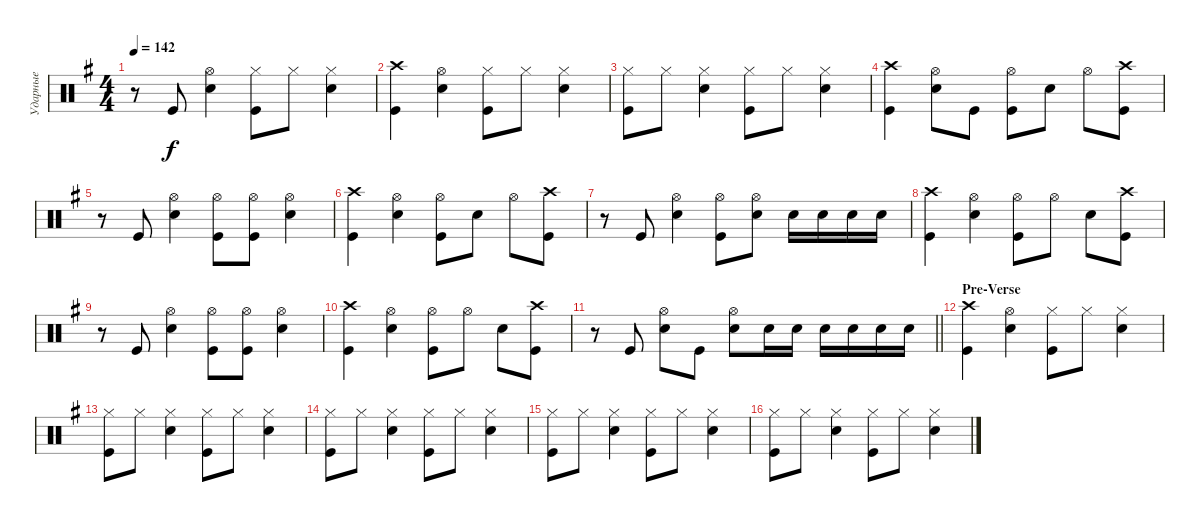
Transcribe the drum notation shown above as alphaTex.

\track ("Ударные" "Ударные") {instrument percussion}
\staff {score}
\articulation defaults
\ts (4 4)
\tempo 142
\clef neutral
\ks eminor
r.8{dy f} "Kick (hit)".8 ("Snare (hit) 2" "Hi-Hat (open)").4 ("Kick (hit)" "Hi-Hat (closed)").8 "Hi-Hat (closed)".8 ("Snare (hit) 2" "Hi-Hat (closed)").4 |
("Kick (hit)" "Crash high (hit)").4 ("Snare (hit) 2" "Hi-Hat (open)").4 ("Kick (hit)" "Hi-Hat (closed)").8 "Hi-Hat (closed)".8 ("Snare (hit) 2" "Hi-Hat (closed)").4 |
("Hi-Hat (closed)" "Kick (hit)").8 "Hi-Hat (closed)".8 ("Snare (hit) 2" "Hi-Hat (closed)").4 ("Kick (hit)" "Hi-Hat (closed)").8 "Hi-Hat (closed)".8 ("Hi-Hat (closed)" "Snare (hit) 2").4 |
("Kick (hit)" "Crash high (hit)").4 ("Snare (hit) 2" "Hi-Hat (open)").8 "Kick (hit)".8 ("Kick (hit)" "Hi-Hat (open)").8 "Snare (hit) 2".8 "Hi-Hat (open)".8 ("Kick (hit)" "Crash high (hit)").8 |
r.8 "Kick (hit)".8 ("Snare (hit) 2" "Hi-Hat (open)").4 ("Kick (hit)" "Hi-Hat (open)").8 ("Kick (hit)" "Hi-Hat (open)").8 ("Snare (hit) 2" "Hi-Hat (open)").4 |
("Kick (hit)" "Crash high (hit)").4 ("Snare (hit) 2" "Hi-Hat (open)").4 ("Kick (hit)" "Hi-Hat (open)").8 "Snare (hit) 2".8 "Hi-Hat (open)".8 ("Kick (hit)" "Crash high (hit)").8 |
r.8 "Kick (hit)".8 ("Snare (hit) 2" "Hi-Hat (open)").4 ("Kick (hit)" "Hi-Hat (open)").8 ("Snare (hit) 2" "Hi-Hat (open)").8 "Snare (hit) 2".16 "Snare (hit) 2".16 "Snare (hit) 2".16 "Snare (hit) 2".16 |
("Kick (hit)" "Crash high (hit)").4 ("Snare (hit) 2" "Hi-Hat (open)").4 ("Kick (hit)" "Hi-Hat (open)").8 "Hi-Hat (open)".8 "Snare (hit) 2".8 ("Kick (hit)" "Crash high (hit)").8 |
r.8 "Kick (hit)".8 ("Snare (hit) 2" "Hi-Hat (open)").4 ("Kick (hit)" "Hi-Hat (open)").8 ("Kick (hit)" "Hi-Hat (open)").8 ("Snare (hit) 2" "Hi-Hat (open)").4 |
("Kick (hit)" "Crash high (hit)").4 ("Snare (hit) 2" "Hi-Hat (open)").4 ("Kick (hit)" "Hi-Hat (open)").8 "Hi-Hat (open)".8 "Snare (hit) 2".8 ("Kick (hit)" "Crash high (hit)").8 |
\barLineRight lightlight
r.8 "Kick (hit)".8 ("Snare (hit) 2" "Hi-Hat (open)").8 "Kick (hit)".8 ("Snare (hit) 2" "Hi-Hat (open)").8 "Snare (hit) 2".16 "Snare (hit) 2".16 "Snare (hit) 2".16 "Snare (hit) 2".16 "Snare (hit) 2".16 "Snare (hit) 2".16 |
\section ("" "Pre-Verse")
("Kick (hit)" "Crash high (hit)").4 ("Snare (hit) 2" "Hi-Hat (open)").4 ("Kick (hit)" "Hi-Hat (closed)").8 "Hi-Hat (closed)".8 ("Snare (hit) 2" "Hi-Hat (closed)").4 |
("Hi-Hat (closed)" "Kick (hit)").8 "Hi-Hat (closed)".8 ("Snare (hit) 2" "Hi-Hat (closed)").4 ("Kick (hit)" "Hi-Hat (closed)").8 "Hi-Hat (closed)".8 ("Hi-Hat (closed)" "Snare (hit) 2").4 |
("Hi-Hat (closed)" "Kick (hit)").8 "Hi-Hat (closed)".8 ("Snare (hit) 2" "Hi-Hat (closed)").4 ("Kick (hit)" "Hi-Hat (closed)").8 "Hi-Hat (closed)".8 ("Hi-Hat (closed)" "Snare (hit) 2").4 |
("Hi-Hat (closed)" "Kick (hit)").8 "Hi-Hat (closed)".8 ("Snare (hit) 2" "Hi-Hat (closed)").4 ("Kick (hit)" "Hi-Hat (closed)").8 "Hi-Hat (closed)".8 ("Hi-Hat (closed)" "Snare (hit) 2").4 |
("Hi-Hat (closed)" "Kick (hit)").8 "Hi-Hat (closed)".8 ("Snare (hit) 2" "Hi-Hat (closed)").4 ("Kick (hit)" "Hi-Hat (closed)").8 "Hi-Hat (closed)".8 ("Hi-Hat (closed)" "Snare (hit) 2").4
